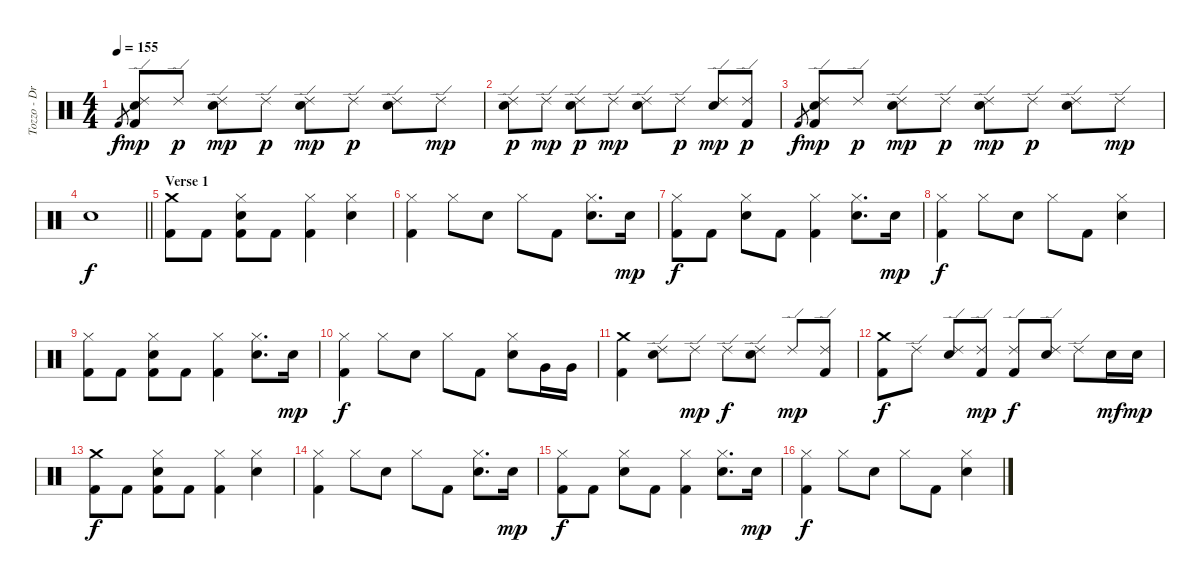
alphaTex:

\track ("Tozzo - Drums" "Tozzo - Dr") {instrument percussion}
\staff {score}
\articulation defaults
\ts (4 4)
\tempo 155
\clef neutral
\ks c "Kick (hit) 2".8{gr dy f}
("Ride (edge) 2" "Snare (hit) 2" "Kick (hit) 2").8{dy mp} "Ride (edge) 2".8{dy p} ("Ride (edge) 2" "Snare (hit) 2").8{dy mp} "Ride (edge) 2".8{dy p} ("Ride (edge) 2" "Snare (hit) 2").8{dy mp} "Ride (edge) 2".8{dy p} ("Ride (edge) 2" "Snare (hit) 2").8 "Ride (edge) 2".8{dy mp} |
("Ride (edge) 2" "Snare (hit) 2").8{dy p} "Ride (edge) 2".8{dy mp} ("Ride (edge) 2" "Snare (hit) 2").8{dy p} "Ride (edge) 2".8{dy mp} ("Ride (edge) 2" "Snare (hit) 2").8 "Ride (edge) 2".8{dy p} ("Ride (edge) 2" "Snare (hit) 2").8{dy mp} ("Ride (edge) 2" "Kick (hit) 2").8{dy p} |
"Kick (hit) 2".8{gr dy f} ("Ride (edge) 2" "Snare (hit) 2" "Kick (hit) 2").8{dy mp} "Ride (edge) 2".8{dy p} ("Ride (edge) 2" "Snare (hit) 2").8{dy mp} "Ride (edge) 2".8{dy p} ("Ride (edge) 2" "Snare (hit) 2").8{dy mp} "Ride (edge) 2".8{dy p} ("Ride (edge) 2" "Snare (hit) 2").8 "Ride (edge) 2".8{dy mp} |
\barLineRight lightlight "Snare (hit) 2".1{dy f}
|
\section ("" "Verse 1")
("Crash medium (hit)" "Kick (hit) 2").8 "Kick (hit) 2".8 ("Hi-Hat (closed)" "Snare (hit) 2" "Kick (hit) 2").8 "Kick (hit) 2".8 ("Hi-Hat (closed)" "Kick (hit) 2").4 ("Hi-Hat (closed)" "Snare (hit) 2").4 |
("Hi-Hat (closed)" "Kick (hit) 2").4 "Hi-Hat (closed)".8 "Snare (hit) 2".8 "Hi-Hat (closed)".8 "Kick (hit) 2".8 ("Hi-Hat (closed)" "Snare (hit) 2").8{d} "Snare (hit) 2".16{dy mp} |
("Hi-Hat (closed)" "Kick (hit) 2").8{dy f} "Kick (hit) 2".8 ("Hi-Hat (closed)" "Snare (hit) 2").8 "Kick (hit) 2".8 ("Hi-Hat (closed)" "Kick (hit) 2").4 ("Hi-Hat (closed)" "Snare (hit) 2").8{d} "Snare (hit) 2".16{dy mp} |
("Hi-Hat (closed)" "Kick (hit) 2").4{dy f} "Hi-Hat (closed)".8 "Snare (hit) 2".8 "Hi-Hat (closed)".8 "Kick (hit) 2".8 ("Hi-Hat (closed)" "Snare (hit) 2").4 |
("Hi-Hat (closed)" "Kick (hit) 2").8 "Kick (hit) 2".8 ("Hi-Hat (closed)" "Snare (hit) 2" "Kick (hit) 2").8 "Kick (hit) 2".8 ("Hi-Hat (closed)" "Kick (hit) 2").4 ("Hi-Hat (closed)" "Snare (hit) 2").8{d} "Snare (hit) 2".16{dy mp} |
("Hi-Hat (closed)" "Kick (hit) 2").4{dy f} "Hi-Hat (closed)".8 "Snare (hit) 2".8 "Hi-Hat (closed)".8 "Kick (hit) 2".8 ("Hi-Hat (closed)" "Snare (hit) 2").8 "Very Low Tom (hit)".16 "Very Low Tom (hit)".16 |
("Crash medium (hit)" "Kick (hit) 2").4 ("Ride (edge) 2" "Snare (hit) 2").8 "Ride (edge) 2".8{dy mp} "Ride (edge) 2".8{dy f} ("Ride (edge) 2" "Snare (hit) 2").8 "Ride (edge) 2".8{dy mp} ("Ride (edge) 2" "Kick (hit) 2").8 |
("Crash medium (hit)" "Kick (hit) 2").8{dy f} "Ride (edge) 2".8 ("Ride (edge) 2" "Snare (hit) 2").8 ("Ride (edge) 2" "Kick (hit) 2").8{dy mp} ("Ride (edge) 2" "Kick (hit) 2").8{dy f} ("Ride (edge) 2" "Snare (hit) 2").8 "Ride (edge) 2".8 "Snare (hit) 2".16{dy mf} "Snare (hit) 2".16{dy mp} |
("Crash medium (hit)" "Kick (hit) 2").8{dy f} "Kick (hit) 2".8 ("Hi-Hat (closed)" "Snare (hit) 2" "Kick (hit) 2").8 "Kick (hit) 2".8 ("Hi-Hat (closed)" "Kick (hit) 2").4 ("Hi-Hat (closed)" "Snare (hit) 2").4 |
("Hi-Hat (closed)" "Kick (hit) 2").4 "Hi-Hat (closed)".8 "Snare (hit) 2".8 "Hi-Hat (closed)".8 "Kick (hit) 2".8 ("Hi-Hat (closed)" "Snare (hit) 2").8{d} "Snare (hit) 2".16{dy mp} |
("Hi-Hat (closed)" "Kick (hit) 2").8{dy f} "Kick (hit) 2".8 ("Hi-Hat (closed)" "Snare (hit) 2").8 "Kick (hit) 2".8 ("Hi-Hat (closed)" "Kick (hit) 2").4 ("Hi-Hat (closed)" "Snare (hit) 2").8{d} "Snare (hit) 2".16{dy mp} |
("Hi-Hat (closed)" "Kick (hit) 2").4{dy f} "Hi-Hat (closed)".8 "Snare (hit) 2".8 "Hi-Hat (closed)".8 "Kick (hit) 2".8 ("Hi-Hat (closed)" "Snare (hit) 2").4
